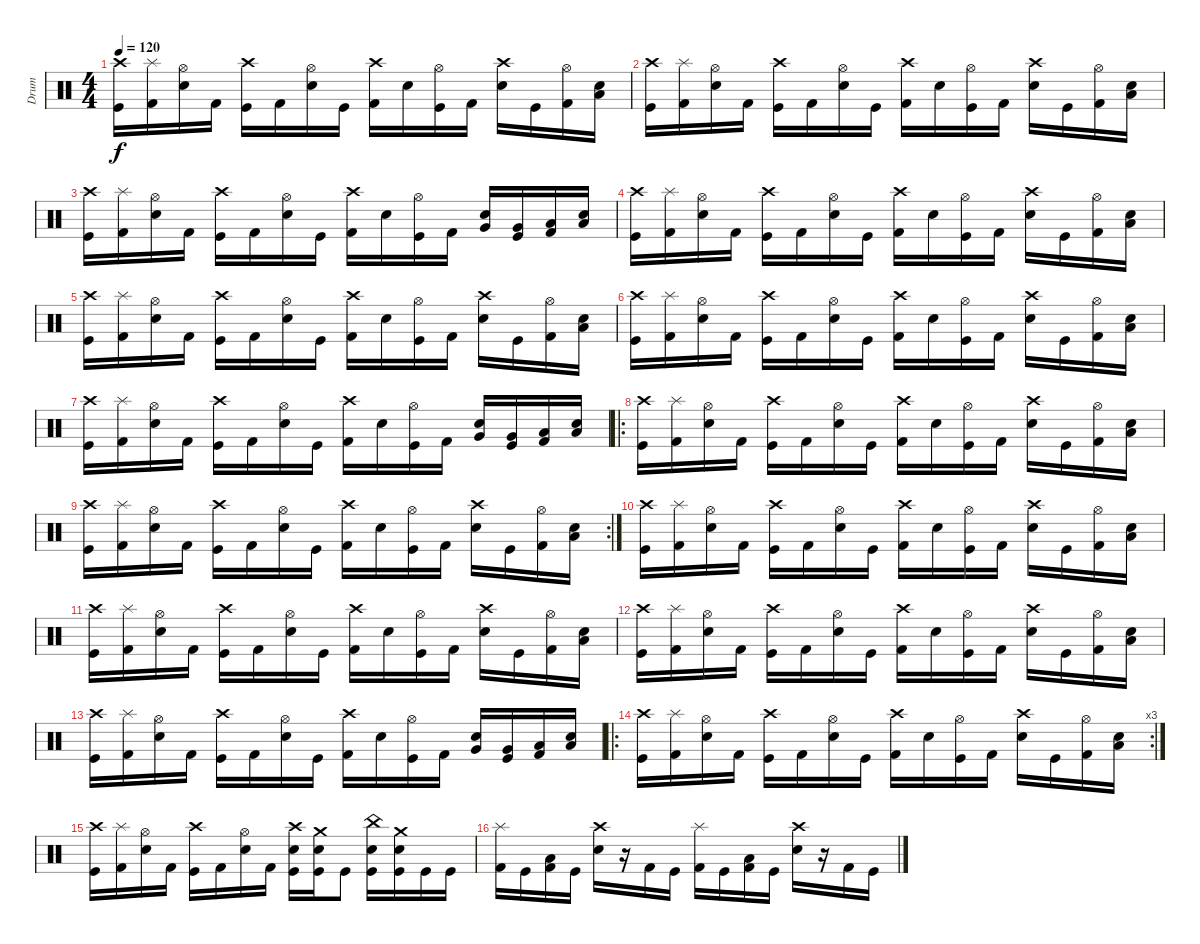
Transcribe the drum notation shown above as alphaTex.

\track ("Drum" "Drum") {instrument percussion}
\staff {score}
\articulation defaults
\ts (4 4)
\tempo 120
\clef neutral
\ks c
("Crash high (hit)" "Kick (hit)").16{dy f} ("Splash (hit)" "Kick (hit) 2").16 ("Hi-Hat (open)" "Snare (hit) 2").16 "Kick (hit) 2".16 ("Crash high (hit)" "Kick (hit)").16 "Kick (hit) 2".16 ("Hi-Hat (open)" "Snare (hit) 2").16 "Kick (hit)".16 ("Crash high (hit)" "Kick (hit) 2").16 "Snare (hit) 2".16 ("Hi-Hat (open)" "Kick (hit)").16 "Kick (hit) 2".16 ("Crash high (hit)" "Snare (hit) 2").16 "Kick (hit)".16 ("Hi-Hat (open)" "Kick (hit) 2").16 ("Low Tom (hit)" "Snare (hit) 2").16 |
("Crash high (hit)" "Kick (hit)").16 ("Splash (hit)" "Kick (hit) 2").16 ("Hi-Hat (open)" "Snare (hit) 2").16 "Kick (hit) 2".16 ("Crash high (hit)" "Kick (hit)").16 "Kick (hit) 2".16 ("Hi-Hat (open)" "Snare (hit) 2").16 "Kick (hit)".16 ("Crash high (hit)" "Kick (hit) 2").16 "Snare (hit) 2".16 ("Hi-Hat (open)" "Kick (hit)").16 "Kick (hit) 2".16 ("Crash high (hit)" "Snare (hit) 2").16 "Kick (hit)".16 ("Hi-Hat (open)" "Kick (hit) 2").16 ("Low Tom (hit)" "Snare (hit) 2").16 |
("Crash high (hit)" "Kick (hit)").16 ("Splash (hit)" "Kick (hit) 2").16 ("Hi-Hat (open)" "Snare (hit) 2").16 "Kick (hit) 2".16 ("Crash high (hit)" "Kick (hit)").16 "Kick (hit) 2".16 ("Hi-Hat (open)" "Snare (hit) 2").16 "Kick (hit)".16 ("Crash high (hit)" "Kick (hit) 2").16 "Snare (hit) 2".16 ("Hi-Hat (open)" "Kick (hit)").16 "Kick (hit) 2".16 ("Very Low Tom (hit)" "Snare (hit) 2").16 ("Very Low Tom (hit)" "Kick (hit)").16 ("Low Floor Tom (hit)" "Kick (hit) 2").16 ("Low Floor Tom (hit)" "Snare (hit) 2").16 |
("Crash high (hit)" "Kick (hit)").16 ("Splash (hit)" "Kick (hit) 2").16 ("Hi-Hat (open)" "Snare (hit) 2").16 "Kick (hit) 2".16 ("Crash high (hit)" "Kick (hit)").16 "Kick (hit) 2".16 ("Hi-Hat (open)" "Snare (hit) 2").16 "Kick (hit)".16 ("Crash high (hit)" "Kick (hit) 2").16 "Snare (hit) 2".16 ("Hi-Hat (open)" "Kick (hit)").16 "Kick (hit) 2".16 ("Crash high (hit)" "Snare (hit) 2").16 "Kick (hit)".16 ("Hi-Hat (open)" "Kick (hit) 2").16 ("Low Tom (hit)" "Snare (hit) 2").16 |
("Crash high (hit)" "Kick (hit)").16 ("Splash (hit)" "Kick (hit) 2").16 ("Hi-Hat (open)" "Snare (hit) 2").16 "Kick (hit) 2".16 ("Crash high (hit)" "Kick (hit)").16 "Kick (hit) 2".16 ("Hi-Hat (open)" "Snare (hit) 2").16 "Kick (hit)".16 ("Crash high (hit)" "Kick (hit) 2").16 "Snare (hit) 2".16 ("Hi-Hat (open)" "Kick (hit)").16 "Kick (hit) 2".16 ("Crash high (hit)" "Snare (hit) 2").16 "Kick (hit)".16 ("Hi-Hat (open)" "Kick (hit) 2").16 ("Low Tom (hit)" "Snare (hit) 2").16 |
("Crash high (hit)" "Kick (hit)").16 ("Splash (hit)" "Kick (hit) 2").16 ("Hi-Hat (open)" "Snare (hit) 2").16 "Kick (hit) 2".16 ("Crash high (hit)" "Kick (hit)").16 "Kick (hit) 2".16 ("Hi-Hat (open)" "Snare (hit) 2").16 "Kick (hit)".16 ("Crash high (hit)" "Kick (hit) 2").16 "Snare (hit) 2".16 ("Hi-Hat (open)" "Kick (hit)").16 "Kick (hit) 2".16 ("Crash high (hit)" "Snare (hit) 2").16 "Kick (hit)".16 ("Hi-Hat (open)" "Kick (hit) 2").16 ("Low Tom (hit)" "Snare (hit) 2").16 |
("Crash high (hit)" "Kick (hit)").16 ("Splash (hit)" "Kick (hit) 2").16 ("Hi-Hat (open)" "Snare (hit) 2").16 "Kick (hit) 2".16 ("Crash high (hit)" "Kick (hit)").16 "Kick (hit) 2".16 ("Hi-Hat (open)" "Snare (hit) 2").16 "Kick (hit)".16 ("Crash high (hit)" "Kick (hit) 2").16 "Snare (hit) 2".16 ("Hi-Hat (open)" "Kick (hit)").16 "Kick (hit) 2".16 ("Very Low Tom (hit)" "Snare (hit) 2").16 ("Very Low Tom (hit)" "Kick (hit)").16 ("Low Floor Tom (hit)" "Kick (hit) 2").16 ("Low Floor Tom (hit)" "Snare (hit) 2").16 |
\ro
("Crash high (hit)" "Kick (hit)").16 ("Splash (hit)" "Kick (hit) 2").16 ("Hi-Hat (open)" "Snare (hit) 2").16 "Kick (hit) 2".16 ("Crash high (hit)" "Kick (hit)").16 "Kick (hit) 2".16 ("Hi-Hat (open)" "Snare (hit) 2").16 "Kick (hit)".16 ("Crash high (hit)" "Kick (hit) 2").16 "Snare (hit) 2".16 ("Hi-Hat (open)" "Kick (hit)").16 "Kick (hit) 2".16 ("Crash high (hit)" "Snare (hit) 2").16 "Kick (hit)".16 ("Hi-Hat (open)" "Kick (hit) 2").16 ("Low Tom (hit)" "Snare (hit) 2").16 |
\rc 2
("Crash high (hit)" "Kick (hit)").16 ("Splash (hit)" "Kick (hit) 2").16 ("Hi-Hat (open)" "Snare (hit) 2").16 "Kick (hit) 2".16 ("Crash high (hit)" "Kick (hit)").16 "Kick (hit) 2".16 ("Hi-Hat (open)" "Snare (hit) 2").16 "Kick (hit)".16 ("Crash high (hit)" "Kick (hit) 2").16 "Snare (hit) 2".16 ("Hi-Hat (open)" "Kick (hit)").16 "Kick (hit) 2".16 ("Crash high (hit)" "Snare (hit) 2").16 "Kick (hit)".16 ("Hi-Hat (open)" "Kick (hit) 2").16 ("Low Tom (hit)" "Snare (hit) 2").16 |
("Crash high (hit)" "Kick (hit)").16 ("Splash (hit)" "Kick (hit) 2").16 ("Hi-Hat (open)" "Snare (hit) 2").16 "Kick (hit) 2".16 ("Crash high (hit)" "Kick (hit)").16 "Kick (hit) 2".16 ("Hi-Hat (open)" "Snare (hit) 2").16 "Kick (hit)".16 ("Crash high (hit)" "Kick (hit) 2").16 "Snare (hit) 2".16 ("Hi-Hat (open)" "Kick (hit)").16 "Kick (hit) 2".16 ("Crash high (hit)" "Snare (hit) 2").16 "Kick (hit)".16 ("Hi-Hat (open)" "Kick (hit) 2").16 ("Low Tom (hit)" "Snare (hit) 2").16 |
("Crash high (hit)" "Kick (hit)").16 ("Splash (hit)" "Kick (hit) 2").16 ("Hi-Hat (open)" "Snare (hit) 2").16 "Kick (hit) 2".16 ("Crash high (hit)" "Kick (hit)").16 "Kick (hit) 2".16 ("Hi-Hat (open)" "Snare (hit) 2").16 "Kick (hit)".16 ("Crash high (hit)" "Kick (hit) 2").16 "Snare (hit) 2".16 ("Hi-Hat (open)" "Kick (hit)").16 "Kick (hit) 2".16 ("Crash high (hit)" "Snare (hit) 2").16 "Kick (hit)".16 ("Hi-Hat (open)" "Kick (hit) 2").16 ("Low Tom (hit)" "Snare (hit) 2").16 |
("Crash high (hit)" "Kick (hit)").16 ("Splash (hit)" "Kick (hit) 2").16 ("Hi-Hat (open)" "Snare (hit) 2").16 "Kick (hit) 2".16 ("Crash high (hit)" "Kick (hit)").16 "Kick (hit) 2".16 ("Hi-Hat (open)" "Snare (hit) 2").16 "Kick (hit)".16 ("Crash high (hit)" "Kick (hit) 2").16 "Snare (hit) 2".16 ("Hi-Hat (open)" "Kick (hit)").16 "Kick (hit) 2".16 ("Crash high (hit)" "Snare (hit) 2").16 "Kick (hit)".16 ("Hi-Hat (open)" "Kick (hit) 2").16 ("Low Tom (hit)" "Snare (hit) 2").16 |
("Crash high (hit)" "Kick (hit)").16 ("Splash (hit)" "Kick (hit) 2").16 ("Hi-Hat (open)" "Snare (hit) 2").16 "Kick (hit) 2".16 ("Crash high (hit)" "Kick (hit)").16 "Kick (hit) 2".16 ("Hi-Hat (open)" "Snare (hit) 2").16 "Kick (hit)".16 ("Crash high (hit)" "Kick (hit) 2").16 "Snare (hit) 2".16 ("Hi-Hat (open)" "Kick (hit)").16 "Kick (hit) 2".16 ("Very Low Tom (hit)" "Snare (hit) 2").16 ("Very Low Tom (hit)" "Kick (hit)").16 ("Low Floor Tom (hit)" "Kick (hit) 2").16 ("Low Floor Tom (hit)" "Snare (hit) 2").16 |
\ro
\rc 3
("Crash high (hit)" "Kick (hit)").16 ("Splash (hit)" "Kick (hit) 2").16 ("Hi-Hat (open)" "Snare (hit) 2").16 "Kick (hit) 2".16 ("Crash high (hit)" "Kick (hit)").16 "Kick (hit) 2".16 ("Hi-Hat (open)" "Snare (hit) 2").16 "Kick (hit)".16 ("Crash high (hit)" "Kick (hit) 2").16 "Snare (hit) 2".16 ("Hi-Hat (open)" "Kick (hit)").16 "Kick (hit) 2".16 ("Crash high (hit)" "Snare (hit) 2").16 "Kick (hit)".16 ("Hi-Hat (open)" "Kick (hit) 2").16 ("Low Tom (hit)" "Snare (hit) 2").16 |
("Crash high (hit)" "Kick (hit)").16 ("Splash (hit)" "Kick (hit) 2").16 ("Hi-Hat (open)" "Snare (hit) 2").16 "Kick (hit) 2".16 ("Crash high (hit)" "Kick (hit)").16 "Kick (hit) 2".16 ("Hi-Hat (open)" "Snare (hit) 2").16 "Kick (hit) 2".16 ("Crash high (hit)" "Electric Snare (hit)" "Kick (hit)").16 ("Crash medium (hit)" "Electric Snare (hit)" "Kick (hit)").16 "Kick (hit)".8 ("China (hit)" "Electric Snare (hit)" "Kick (hit)").16 ("Crash medium (hit)" "Electric Snare (hit)" "Kick (hit)").16 "Kick (hit)".16 "Kick (hit)".16 |
("Splash (hit)" "Kick (hit) 2").16 "Kick (hit)".16 ("Low Floor Tom (hit)" "Kick (hit) 2").16 "Kick (hit)".16 ("Crash high (hit)" "Electric Snare (hit)").16 r.16 "Kick (hit) 2".16 "Kick (hit)".16 ("Splash (hit)" "Kick (hit) 2").16 "Kick (hit)".16 ("Low Floor Tom (hit)" "Kick (hit) 2").16 "Kick (hit)".16 ("Crash high (hit)" "Electric Snare (hit)").16 r.16 "Kick (hit) 2".16 "Kick (hit)".16
